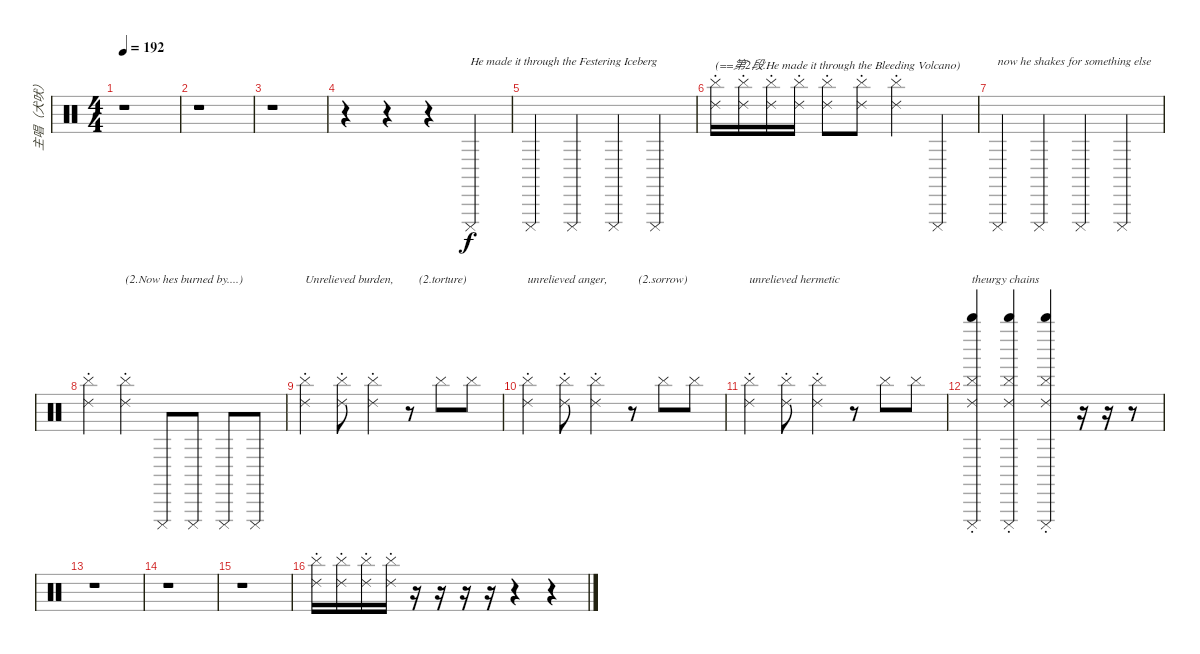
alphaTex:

\track ("主唱（犬吠）" "主唱（犬吠）") {instrument percussion}
\staff {score}
\articulation defaults
\ts (4 4)
\tempo 192
\clef neutral
\ks c
r.1{dy f} |
r.1 |
r.1 |
r.4 r.4 r.4 "Cuica (mute)".4{txt "He made it through the Festering Iceberg"} |
"Cuica (mute)".4 "Cuica (mute)".4 "Cuica (mute)".4 "Cuica (mute)".4 |
("Ride (choke) 2" "Cymbal (hit)").16{txt "(==第2段.He made it through the Bleeding Volcano)"} ("Ride (choke) 2" "Cymbal (hit)").16 ("Ride (choke) 2" "Cymbal (hit)").16 ("Ride (choke) 2" "Cymbal (hit)").16 ("Ride (choke) 2" "Cymbal (hit)").8 ("Ride (choke) 2" "Cymbal (hit)").8 ("Ride (choke) 2" "Cymbal (hit)").4 "Cuica (mute)".4 |
"Cuica (mute)".4{txt "now he shakes for something else"} "Cuica (mute)".4 "Cuica (mute)".4 "Cuica (mute)".4 |
("Ride (choke) 2" "Cymbal (hit)").4 ("Ride (choke) 2" "Cymbal (hit)").4{txt "(2.Now hes burned by....)"} "Cuica (mute)".8 "Cuica (mute)".8 "Cuica (mute)".8 "Cuica (mute)".8 |
("Ride (choke) 2" "Cymbal (hit)").4{txt "Unrelieved burden, "} ("Ride (choke) 2" "Cymbal (hit)").8 ("Ride (choke) 2" "Cymbal (hit)").4 r.8{txt "   (2.torture)"} "Cymbal (hit)".8 "Cymbal (hit)".8 |
("Ride (choke) 2" "Cymbal (hit)").4{txt "unrelieved anger, "} ("Ride (choke) 2" "Cymbal (hit)").8 ("Ride (choke) 2" "Cymbal (hit)").4 r.8{txt "  (2.sorrow)"} "Cymbal (hit)".8 "Cymbal (hit)".8 |
("Ride (choke) 2" "Cymbal (hit)").4{txt "unrelieved hermetic"} ("Ride (choke) 2" "Cymbal (hit)").8 ("Ride (choke) 2" "Cymbal (hit)").4 r.8 "Cymbal (hit)".8 "Cymbal (hit)".8 |
("Cuica (mute)" "Whistle high (hit)" "Ride (choke) 2" "Cymbal (hit)").4{txt "theurgy chains"} ("Cuica (mute)" "Whistle high (hit)" "Ride (choke) 2" "Cymbal (hit)").4 ("Cuica (mute)" "Whistle high (hit)" "Ride (choke) 2" "Cymbal (hit)").4 r.16 r.16 r.8 |
r.1 |
r.1 |
r.1 |
("Ride (choke) 2" "Cymbal (hit)").16 ("Ride (choke) 2" "Cymbal (hit)").16 ("Ride (choke) 2" "Cymbal (hit)").16 ("Ride (choke) 2" "Cymbal (hit)").16 r.16 r.16 r.16 r.16 r.4 r.4
